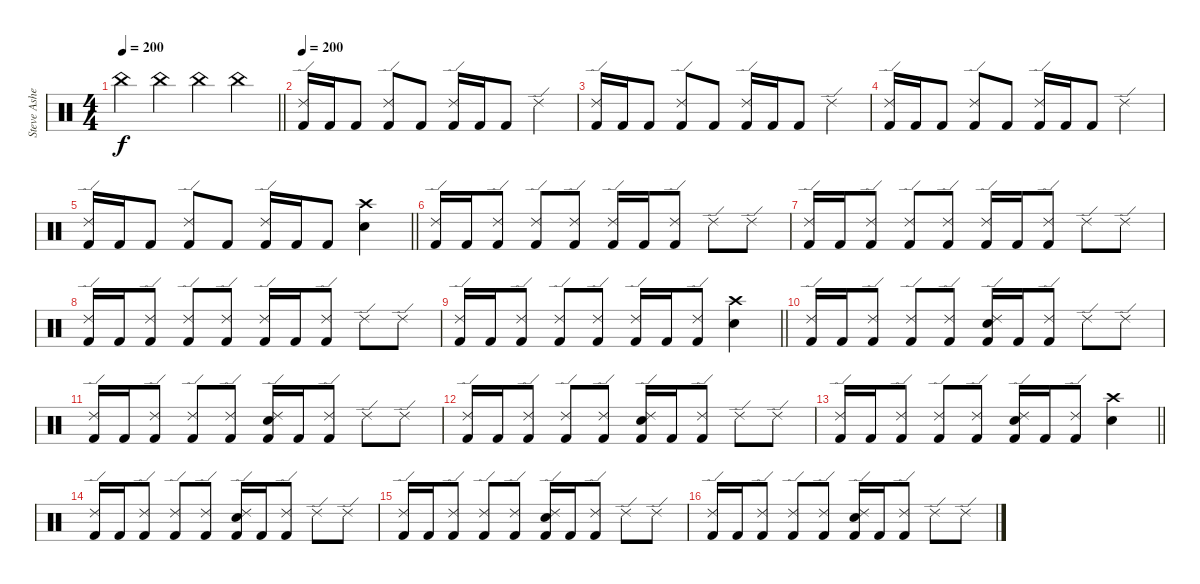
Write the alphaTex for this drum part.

\track ("Steve Asheim" "Steve Ashe") {instrument percussion}
\staff {score}
\articulation defaults
\ts (4 4)
\section ("" "")
\tempo 200
\tempo 180
\tempo 200
\clef neutral
\barLineRight lightlight
\ks c "China (hit)".4{dy f} "China (hit)".4 "China (hit)".4 "China (hit)".4
|
\tempo 200
("Ride (edge) 2" "Kick (hit) 2").16 "Kick (hit) 2".16 "Kick (hit) 2".8 ("Ride (edge) 2" "Kick (hit) 2").8 "Kick (hit) 2".8 ("Ride (edge) 2" "Kick (hit) 2").16 "Kick (hit) 2".16 "Kick (hit) 2".8 "Ride (edge) 2".4 |
("Ride (edge) 2" "Kick (hit) 2").16 "Kick (hit) 2".16 "Kick (hit) 2".8 ("Ride (edge) 2" "Kick (hit) 2").8 "Kick (hit) 2".8 ("Ride (edge) 2" "Kick (hit) 2").16 "Kick (hit) 2".16 "Kick (hit) 2".8 "Ride (edge) 2".4 |
("Ride (edge) 2" "Kick (hit) 2").16 "Kick (hit) 2".16 "Kick (hit) 2".8 ("Ride (edge) 2" "Kick (hit) 2").8 "Kick (hit) 2".8 ("Ride (edge) 2" "Kick (hit) 2").16 "Kick (hit) 2".16 "Kick (hit) 2".8 "Ride (edge) 2".4 |
\barLineRight lightlight
("Ride (edge) 2" "Kick (hit) 2").16 "Kick (hit) 2".16 "Kick (hit) 2".8 ("Ride (edge) 2" "Kick (hit) 2").8 "Kick (hit) 2".8 ("Ride (edge) 2" "Kick (hit) 2").16 "Kick (hit) 2".16 "Kick (hit) 2".8 ("Crash high (hit)" "Electric Snare (hit)").4 |
("Ride (edge) 2" "Kick (hit) 2").16 "Kick (hit) 2".16 ("Ride (edge) 2" "Kick (hit) 2").8 ("Ride (edge) 2" "Kick (hit) 2").8 ("Ride (edge) 2" "Kick (hit) 2").8 ("Ride (edge) 2" "Kick (hit) 2").16 "Kick (hit) 2".16 ("Ride (edge) 2" "Kick (hit) 2").8 "Ride (edge) 2".8 "Ride (edge) 2".8 |
("Ride (edge) 2" "Kick (hit) 2").16 "Kick (hit) 2".16 ("Ride (edge) 2" "Kick (hit) 2").8 ("Ride (edge) 2" "Kick (hit) 2").8 ("Ride (edge) 2" "Kick (hit) 2").8 ("Ride (edge) 2" "Kick (hit) 2").16 "Kick (hit) 2".16 ("Ride (edge) 2" "Kick (hit) 2").8 "Ride (edge) 2".8 "Ride (edge) 2".8 |
("Ride (edge) 2" "Kick (hit) 2").16 "Kick (hit) 2".16 ("Ride (edge) 2" "Kick (hit) 2").8 ("Ride (edge) 2" "Kick (hit) 2").8 ("Ride (edge) 2" "Kick (hit) 2").8 ("Ride (edge) 2" "Kick (hit) 2").16 "Kick (hit) 2".16 ("Ride (edge) 2" "Kick (hit) 2").8 "Ride (edge) 2".8 "Ride (edge) 2".8 |
\barLineRight lightlight
("Ride (edge) 2" "Kick (hit) 2").16 "Kick (hit) 2".16 ("Ride (edge) 2" "Kick (hit) 2").8 ("Ride (edge) 2" "Kick (hit) 2").8 ("Ride (edge) 2" "Kick (hit) 2").8 ("Ride (edge) 2" "Kick (hit) 2").16 "Kick (hit) 2".16 ("Ride (edge) 2" "Kick (hit) 2").8 ("Crash high (hit)" "Electric Snare (hit)").4 |
("Ride (edge) 2" "Kick (hit) 2").16 "Kick (hit) 2".16 ("Ride (edge) 2" "Kick (hit) 2").8 ("Ride (edge) 2" "Kick (hit) 2").8 ("Ride (edge) 2" "Kick (hit) 2").8 ("Ride (edge) 2" "Electric Snare (hit)" "Kick (hit) 2").16 "Kick (hit) 2".16 ("Ride (edge) 2" "Kick (hit) 2").8 "Ride (edge) 2".8 "Ride (edge) 2".8 |
("Ride (edge) 2" "Kick (hit) 2").16 "Kick (hit) 2".16 ("Ride (edge) 2" "Kick (hit) 2").8 ("Ride (edge) 2" "Kick (hit) 2").8 ("Ride (edge) 2" "Kick (hit) 2").8 ("Ride (edge) 2" "Electric Snare (hit)" "Kick (hit) 2").16 "Kick (hit) 2".16 ("Ride (edge) 2" "Kick (hit) 2").8 "Ride (edge) 2".8 "Ride (edge) 2".8 |
("Ride (edge) 2" "Kick (hit) 2").16 "Kick (hit) 2".16 ("Ride (edge) 2" "Kick (hit) 2").8 ("Ride (edge) 2" "Kick (hit) 2").8 ("Ride (edge) 2" "Kick (hit) 2").8 ("Ride (edge) 2" "Electric Snare (hit)" "Kick (hit) 2").16 "Kick (hit) 2".16 ("Ride (edge) 2" "Kick (hit) 2").8 "Ride (edge) 2".8 "Ride (edge) 2".8 |
\barLineRight lightlight
("Ride (edge) 2" "Kick (hit) 2").16 "Kick (hit) 2".16 ("Ride (edge) 2" "Kick (hit) 2").8 ("Ride (edge) 2" "Kick (hit) 2").8 ("Ride (edge) 2" "Kick (hit) 2").8 ("Ride (edge) 2" "Electric Snare (hit)" "Kick (hit) 2").16 "Kick (hit) 2".16 ("Ride (edge) 2" "Kick (hit) 2").8 ("Crash high (hit)" "Electric Snare (hit)").4 |
("Ride (edge) 2" "Kick (hit) 2").16 "Kick (hit) 2".16 ("Ride (edge) 2" "Kick (hit) 2").8 ("Ride (edge) 2" "Kick (hit) 2").8 ("Ride (edge) 2" "Kick (hit) 2").8 ("Ride (edge) 2" "Electric Snare (hit)" "Kick (hit) 2").16 "Kick (hit) 2".16 ("Ride (edge) 2" "Kick (hit) 2").8 "Ride (edge) 2".8 "Ride (edge) 2".8 |
("Ride (edge) 2" "Kick (hit) 2").16 "Kick (hit) 2".16 ("Ride (edge) 2" "Kick (hit) 2").8 ("Ride (edge) 2" "Kick (hit) 2").8 ("Ride (edge) 2" "Kick (hit) 2").8 ("Ride (edge) 2" "Electric Snare (hit)" "Kick (hit) 2").16 "Kick (hit) 2".16 ("Ride (edge) 2" "Kick (hit) 2").8 "Ride (edge) 2".8 "Ride (edge) 2".8 |
("Ride (edge) 2" "Kick (hit) 2").16 "Kick (hit) 2".16 ("Ride (edge) 2" "Kick (hit) 2").8 ("Ride (edge) 2" "Kick (hit) 2").8 ("Ride (edge) 2" "Kick (hit) 2").8 ("Ride (edge) 2" "Electric Snare (hit)" "Kick (hit) 2").16 "Kick (hit) 2".16 ("Ride (edge) 2" "Kick (hit) 2").8 "Ride (edge) 2".8 "Ride (edge) 2".8
